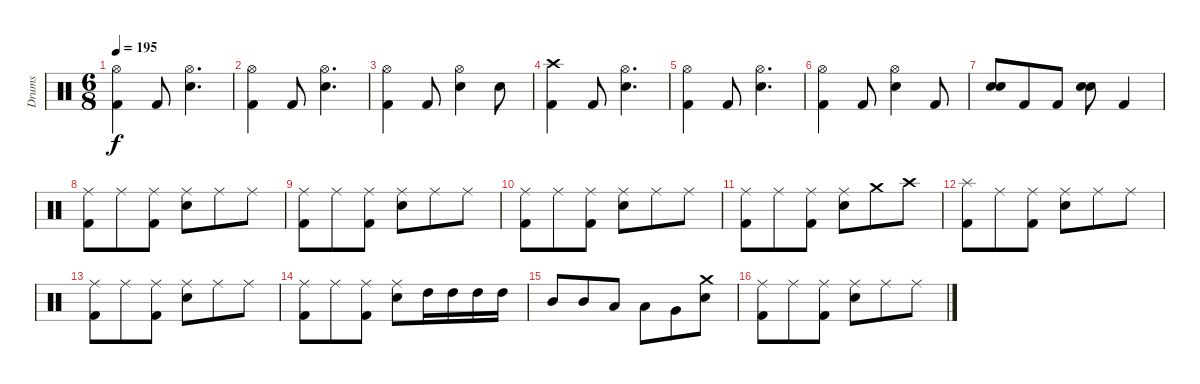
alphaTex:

\track ("Drums" "Drums") {instrument percussion}
\staff {score}
\articulation defaults
\ts (6 8)
\tempo 195
\clef neutral
\ks c
("Hi-Hat (open)" "Kick (hit) 2").4{dy f} "Kick (hit) 2".8 ("Hi-Hat (open)" "Electric Snare (hit)").4{d} |
("Hi-Hat (open)" "Kick (hit) 2").4 "Kick (hit) 2".8 ("Hi-Hat (open)" "Electric Snare (hit)").4{d} |
("Hi-Hat (open)" "Kick (hit) 2").4 "Kick (hit) 2".8 ("Hi-Hat (open)" "Electric Snare (hit)").4 "Electric Snare (hit)".8 |
("Crash high (hit)" "Kick (hit) 2").4 "Kick (hit) 2".8 ("Hi-Hat (open)" "Electric Snare (hit)").4{d} |
("Hi-Hat (open)" "Kick (hit) 2").4 "Kick (hit) 2".8 ("Hi-Hat (open)" "Electric Snare (hit)").4{d} |
("Hi-Hat (open)" "Kick (hit) 2").4 "Kick (hit) 2".8 ("Hi-Hat (open)" "Electric Snare (hit)").4 "Kick (hit) 2".8 |
("Electric Snare (hit)" "Electric Snare (hit)").8{bd 240} "Kick (hit) 2".8 "Kick (hit) 2".8 ("Electric Snare (hit)" "Electric Snare (hit)").8{bd 240} "Kick (hit) 2".4 |
("Ride (middle)" "Kick (hit) 2").8 "Ride (middle)".8 ("Ride (middle)" "Kick (hit) 2").8 ("Ride (middle)" "Electric Snare (hit)").8 "Ride (middle)".8 "Ride (middle)".8 |
("Ride (middle)" "Kick (hit) 2").8 "Ride (middle)".8 ("Ride (middle)" "Kick (hit) 2").8 ("Ride (middle)" "Electric Snare (hit)").8 "Ride (middle)".8 "Ride (middle)".8 |
("Ride (middle)" "Kick (hit) 2").8 "Ride (middle)".8 ("Ride (middle)" "Kick (hit) 2").8 ("Ride (middle)" "Electric Snare (hit)").8 "Ride (middle)".8 "Ride (middle)".8 |
("Ride (middle)" "Kick (hit) 2").8 "Ride (middle)".8 ("Ride (middle)" "Kick (hit) 2").8 ("Ride (middle)" "Electric Snare (hit)").8 "Crash medium (hit)".8 "Crash high (hit)".8 |
("Splash (hit)" "Kick (hit) 2").8 "Ride (middle)".8 ("Ride (middle)" "Kick (hit) 2").8 ("Ride (middle)" "Electric Snare (hit)").8 "Ride (middle)".8 "Ride (middle)".8 |
("Ride (middle)" "Kick (hit) 2").8 "Ride (middle)".8 ("Ride (middle)" "Kick (hit) 2").8 ("Ride (middle)" "Electric Snare (hit)").8 "Ride (middle)".8 "Ride (middle)".8 |
("Ride (middle)" "Kick (hit) 2").8 "Ride (middle)".8 ("Ride (middle)" "Kick (hit) 2").8 ("Ride (middle)" "Electric Snare (hit)").8 "High Tom (hit)".16 "High Tom (hit)".16 "High Tom (hit)".16 "High Tom (hit)".16 |
"Mid Tom (hit)".8 "Mid Tom (hit)".8 "Low Tom (hit)".8 "Low Tom (hit)".8 "Very Low Tom (hit)".8 ("Crash medium (hit)" "Electric Snare (hit)").8 |
("Ride (middle)" "Kick (hit) 2").8 "Ride (middle)".8 ("Ride (middle)" "Kick (hit) 2").8 ("Ride (middle)" "Electric Snare (hit)").8 "Ride (middle)".8 "Ride (middle)".8
